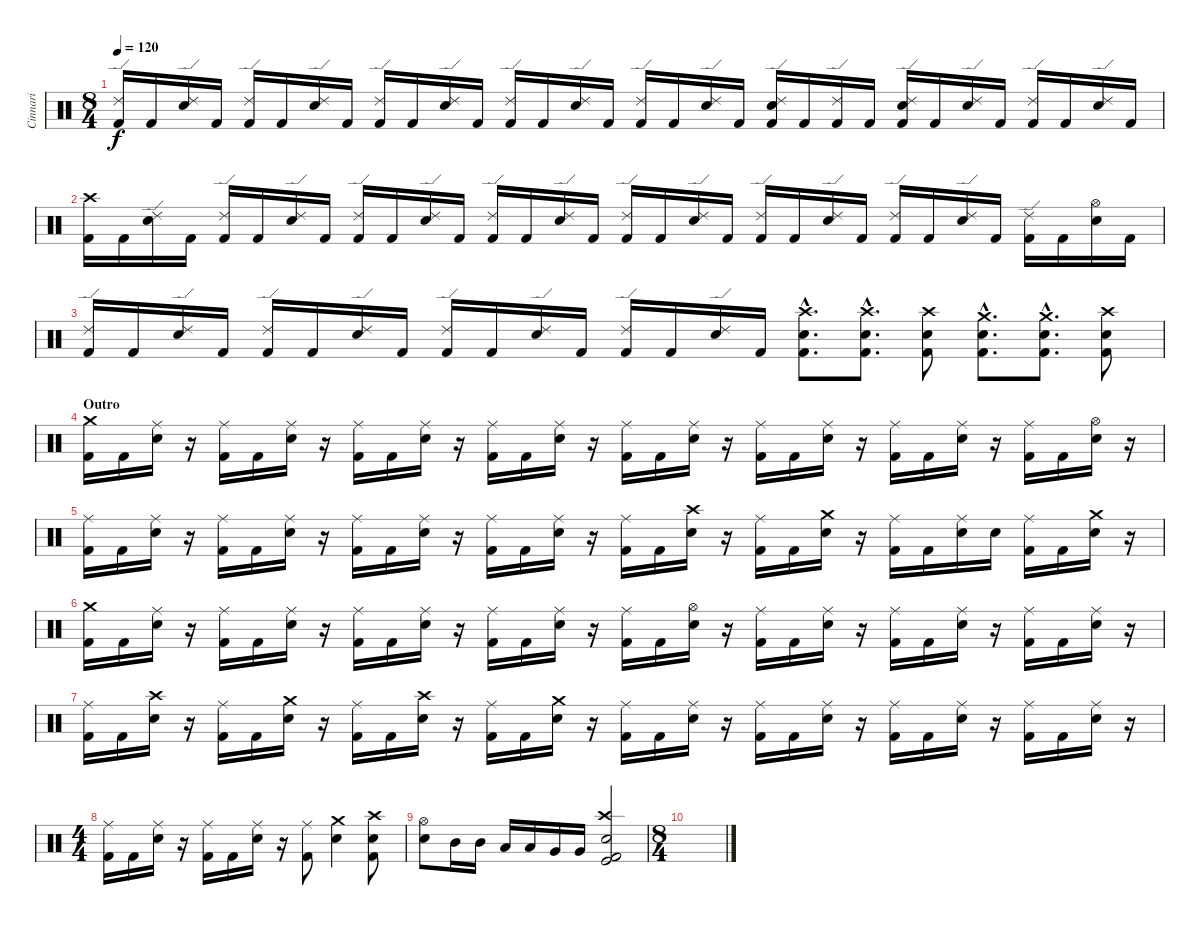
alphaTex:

\track ("Cinnari" "Cinnari") {instrument percussion}
\staff {score}
\articulation defaults
\ts (8 4)
\tempo 120
\clef neutral
\ks c
("Ride (edge) 2" "Kick (hit) 2").16{dy f} "Kick (hit) 2".16 ("Ride (edge) 2" "Snare (hit) 2").16 "Kick (hit) 2".16 ("Ride (edge) 2" "Kick (hit) 2").16 "Kick (hit) 2".16 ("Ride (edge) 2" "Snare (hit) 2").16 "Kick (hit) 2".16 ("Ride (edge) 2" "Kick (hit) 2").16 "Kick (hit) 2".16 ("Ride (edge) 2" "Snare (hit) 2").16 "Kick (hit) 2".16 ("Ride (edge) 2" "Kick (hit) 2").16 "Kick (hit) 2".16 ("Ride (edge) 2" "Snare (hit) 2").16 "Kick (hit) 2".16 ("Ride (edge) 2" "Kick (hit) 2").16 "Kick (hit) 2".16 ("Ride (edge) 2" "Snare (hit) 2").16 "Kick (hit) 2".16 ("Ride (edge) 2" "Snare (hit) 2" "Kick (hit) 2").16 "Kick (hit) 2".16 ("Ride (edge) 2" "Kick (hit) 2").16 "Kick (hit) 2".16 ("Ride (edge) 2" "Snare (hit) 2" "Kick (hit) 2").16 "Kick (hit) 2".16 ("Ride (edge) 2" "Snare (hit) 2").16 "Kick (hit) 2".16 ("Ride (edge) 2" "Kick (hit) 2").16 "Kick (hit) 2".16 ("Ride (edge) 2" "Snare (hit) 2").16 "Kick (hit) 2".16 |
("Crash high (hit)" "Kick (hit) 2").16 "Kick (hit) 2".16 ("Ride (edge) 2" "Snare (hit) 2").16 "Kick (hit) 2".16 ("Ride (edge) 2" "Kick (hit) 2").16 "Kick (hit) 2".16 ("Ride (edge) 2" "Snare (hit) 2").16 "Kick (hit) 2".16 ("Ride (edge) 2" "Kick (hit) 2").16 "Kick (hit) 2".16 ("Ride (edge) 2" "Snare (hit) 2").16 "Kick (hit) 2".16 ("Ride (edge) 2" "Kick (hit) 2").16 "Kick (hit) 2".16 ("Ride (edge) 2" "Snare (hit) 2").16 "Kick (hit) 2".16 ("Ride (edge) 2" "Kick (hit) 2").16 "Kick (hit) 2".16 ("Ride (edge) 2" "Snare (hit) 2").16 "Kick (hit) 2".16 ("Ride (edge) 2" "Kick (hit) 2").16 "Kick (hit) 2".16 ("Ride (edge) 2" "Snare (hit) 2").16 "Kick (hit) 2".16 ("Ride (edge) 2" "Kick (hit) 2").16 "Kick (hit) 2".16 ("Ride (edge) 2" "Snare (hit) 2").16 "Kick (hit) 2".16 ("Ride (edge) 2" "Kick (hit) 2").16 "Kick (hit) 2".16 ("Hi-Hat (open)" "Snare (hit) 2").16 "Kick (hit) 2".16 |
("Ride (edge) 2" "Kick (hit) 2").16 "Kick (hit) 2".16 ("Ride (edge) 2" "Snare (hit) 2").16 "Kick (hit) 2".16 ("Ride (edge) 2" "Kick (hit) 2").16 "Kick (hit) 2".16 ("Ride (edge) 2" "Snare (hit) 2").16 "Kick (hit) 2".16 ("Ride (edge) 2" "Kick (hit) 2").16 "Kick (hit) 2".16 ("Ride (edge) 2" "Snare (hit) 2").16 "Kick (hit) 2".16 ("Ride (edge) 2" "Kick (hit) 2").16 "Kick (hit) 2".16 ("Ride (edge) 2" "Snare (hit) 2").16 "Kick (hit) 2".16 ("Crash high (hit)"{hac} "Snare (hit) 2"{hac} "Kick (hit) 2"{hac}).8{d} ("Crash high (hit)"{hac} "Snare (hit) 2"{hac} "Kick (hit) 2"{hac}).8{d} ("Crash high (hit)" "Snare (hit) 2" "Kick (hit) 2").8 ("Crash medium (hit)"{hac} "Snare (hit) 2"{hac} "Kick (hit) 2"{hac}).8{d} ("Crash medium (hit)"{hac} "Snare (hit) 2"{hac} "Kick (hit) 2"{hac}).8{d} ("Crash high (hit)" "Snare (hit) 2" "Kick (hit) 2").8 |
\section ("" "Outro")
("Crash medium (hit)" "Kick (hit) 2").16 "Kick (hit) 2".16 ("Ride (middle)" "Snare (hit) 2").16 r.16 ("Ride (middle)" "Kick (hit) 2").16 "Kick (hit) 2".16 ("Ride (middle)" "Snare (hit) 2").16 r.16 ("Ride (middle)" "Kick (hit) 2").16 "Kick (hit) 2".16 ("Ride (middle)" "Snare (hit) 2").16 r.16 ("Ride (middle)" "Kick (hit) 2").16 "Kick (hit) 2".16 ("Ride (middle)" "Snare (hit) 2").16 r.16 ("Ride (middle)" "Kick (hit) 2").16 "Kick (hit) 2".16 ("Ride (middle)" "Snare (hit) 2").16 r.16 ("Ride (middle)" "Kick (hit) 2").16 "Kick (hit) 2".16 ("Ride (middle)" "Snare (hit) 2").16 r.16 ("Ride (middle)" "Kick (hit) 2").16 "Kick (hit) 2".16 ("Ride (middle)" "Snare (hit) 2").16 r.16 ("Ride (middle)" "Kick (hit) 2").16 "Kick (hit) 2".16 ("Hi-Hat (open)" "Snare (hit) 2").16 r.16 |
("Ride (middle)" "Kick (hit) 2").16 "Kick (hit) 2".16 ("Ride (middle)" "Snare (hit) 2").16 r.16 ("Ride (middle)" "Kick (hit) 2").16 "Kick (hit) 2".16 ("Ride (middle)" "Snare (hit) 2").16 r.16 ("Ride (middle)" "Kick (hit) 2").16 "Kick (hit) 2".16 ("Ride (middle)" "Snare (hit) 2").16 r.16 ("Ride (middle)" "Kick (hit) 2").16 "Kick (hit) 2".16 ("Ride (middle)" "Snare (hit) 2").16 r.16 ("Ride (middle)" "Kick (hit) 2").16 "Kick (hit) 2".16 ("Crash high (hit)" "Snare (hit) 2").16 r.16 ("Ride (middle)" "Kick (hit) 2").16 "Kick (hit) 2".16 ("Crash medium (hit)" "Snare (hit) 2").16 r.16 ("Ride (middle)" "Kick (hit) 2").16 "Kick (hit) 2".16 ("Ride (middle)" "Snare (hit) 2").16 "Snare (hit) 2".16 ("Ride (middle)" "Kick (hit) 2").16 "Kick (hit) 2".16 ("Crash medium (hit)" "Snare (hit) 2").16 r.16 |
("Crash medium (hit)" "Kick (hit) 2").16 "Kick (hit) 2".16 ("Ride (middle)" "Snare (hit) 2").16 r.16 ("Ride (middle)" "Kick (hit) 2").16 "Kick (hit) 2".16 ("Ride (middle)" "Snare (hit) 2").16 r.16 ("Ride (middle)" "Kick (hit) 2").16 "Kick (hit) 2".16 ("Ride (middle)" "Snare (hit) 2").16 r.16 ("Ride (middle)" "Kick (hit) 2").16 "Kick (hit) 2".16 ("Ride (middle)" "Snare (hit) 2").16 r.16 ("Ride (middle)" "Kick (hit) 2").16 "Kick (hit) 2".16 ("Hi-Hat (open)" "Snare (hit) 2").16 r.16 ("Ride (middle)" "Kick (hit) 2").16 "Kick (hit) 2".16 ("Ride (middle)" "Snare (hit) 2").16 r.16 ("Ride (middle)" "Kick (hit) 2").16 "Kick (hit) 2".16 ("Ride (middle)" "Snare (hit) 2").16 r.16 ("Ride (middle)" "Kick (hit) 2").16 "Kick (hit) 2".16 ("Ride (middle)" "Snare (hit) 2").16 r.16 |
("Ride (middle)" "Kick (hit) 2").16 "Kick (hit) 2".16 ("Crash high (hit)" "Snare (hit) 2").16 r.16 ("Ride (middle)" "Kick (hit) 2").16 "Kick (hit) 2".16 ("Crash medium (hit)" "Snare (hit) 2").16 r.16 ("Ride (middle)" "Kick (hit) 2").16 "Kick (hit) 2".16 ("Crash high (hit)" "Snare (hit) 2").16 r.16 ("Ride (middle)" "Kick (hit) 2").16 "Kick (hit) 2".16 ("Crash medium (hit)" "Snare (hit) 2").16 r.16 ("Ride (middle)" "Kick (hit) 2").16 "Kick (hit) 2".16 ("Ride (middle)" "Snare (hit) 2").16 r.16 ("Ride (middle)" "Kick (hit) 2").16 "Kick (hit) 2".16 ("Ride (middle)" "Snare (hit) 2").16 r.16 ("Ride (middle)" "Kick (hit) 2").16 "Kick (hit) 2".16 ("Ride (middle)" "Snare (hit) 2").16 r.16 ("Ride (middle)" "Kick (hit) 2").16 "Kick (hit) 2".16 ("Ride (middle)" "Snare (hit) 2").16 r.16 |
\ts (4 4)
("Ride (middle)" "Kick (hit) 2").16 "Kick (hit) 2".16 ("Ride (middle)" "Snare (hit) 2").16 r.16 ("Ride (middle)" "Kick (hit) 2").16 "Kick (hit) 2".16 ("Ride (middle)" "Snare (hit) 2").16 r.16 ("Ride (middle)" "Kick (hit) 2").8 ("Crash medium (hit)" "Snare (hit) 2").4 ("Crash high (hit)" "Snare (hit) 2" "Kick (hit) 2").8 |
("Hi-Hat (open)" "Snare (hit) 2").8 "Mid Tom (hit)".16 "Mid Tom (hit)".16 "Low Tom (hit)".16 "Low Tom (hit)".16 "Very Low Tom (hit)".16 "Very Low Tom (hit)".16 ("Crash high (hit)" "Snare (hit) 2" "Kick (hit)" "Kick (hit) 2").2 |
\ts (8 4)
